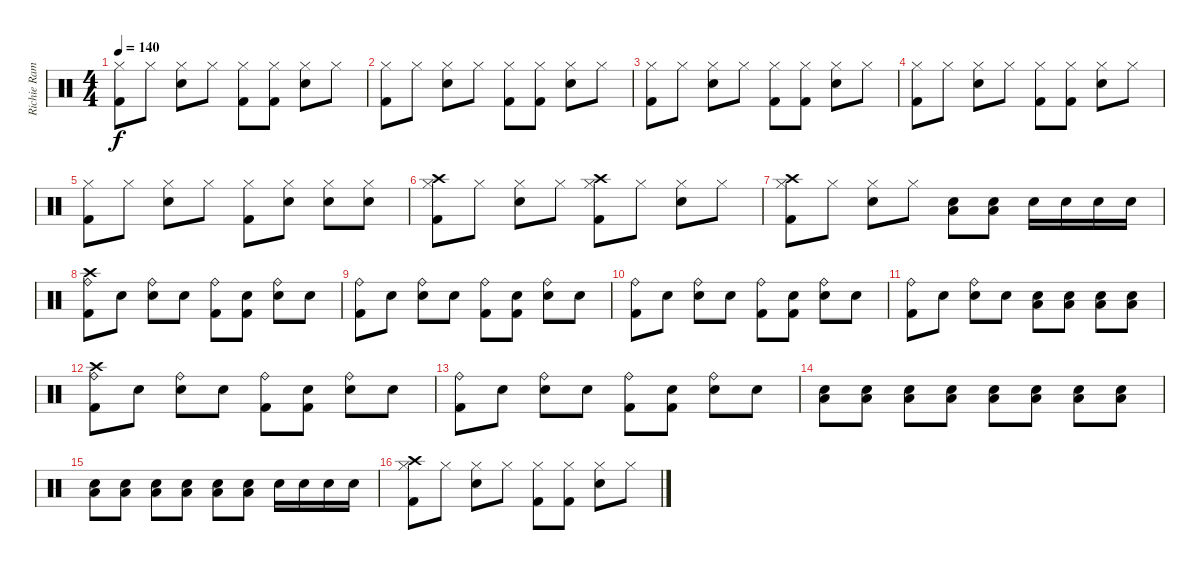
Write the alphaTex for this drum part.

\track ("Richie Ramone - Drums" "Richie Ram") {instrument percussion}
\staff {score}
\articulation defaults
\ts (4 4)
\tempo 140
\clef neutral
\ks c
("Hi-Hat (closed)" "Kick (hit) 2").8{dy f} "Hi-Hat (closed)".8 ("Hi-Hat (closed)" "Electric Snare (hit)").8 "Hi-Hat (closed)".8 ("Hi-Hat (closed)" "Kick (hit) 2").8 ("Hi-Hat (closed)" "Kick (hit) 2").8 ("Hi-Hat (closed)" "Electric Snare (hit)").8 "Hi-Hat (closed)".8 |
("Hi-Hat (closed)" "Kick (hit) 2").8 "Hi-Hat (closed)".8 ("Hi-Hat (closed)" "Electric Snare (hit)").8 "Hi-Hat (closed)".8 ("Hi-Hat (closed)" "Kick (hit) 2").8 ("Hi-Hat (closed)" "Kick (hit) 2").8 ("Hi-Hat (closed)" "Electric Snare (hit)").8 "Hi-Hat (closed)".8 |
("Hi-Hat (closed)" "Kick (hit) 2").8 "Hi-Hat (closed)".8 ("Hi-Hat (closed)" "Electric Snare (hit)").8 "Hi-Hat (closed)".8 ("Hi-Hat (closed)" "Kick (hit) 2").8 ("Hi-Hat (closed)" "Kick (hit) 2").8 ("Hi-Hat (closed)" "Electric Snare (hit)").8 "Hi-Hat (closed)".8 |
("Hi-Hat (closed)" "Kick (hit) 2").8 "Hi-Hat (closed)".8 ("Hi-Hat (closed)" "Electric Snare (hit)").8 "Hi-Hat (closed)".8 ("Hi-Hat (closed)" "Kick (hit) 2").8 ("Hi-Hat (closed)" "Kick (hit) 2").8 ("Hi-Hat (closed)" "Electric Snare (hit)").8 "Hi-Hat (closed)".8 |
("Hi-Hat (closed)" "Kick (hit) 2").8 "Hi-Hat (closed)".8 ("Hi-Hat (closed)" "Electric Snare (hit)").8 "Hi-Hat (closed)".8 ("Hi-Hat (closed)" "Kick (hit) 2").8 ("Hi-Hat (closed)" "Electric Snare (hit)").8 ("Hi-Hat (closed)" "Electric Snare (hit)").8 ("Hi-Hat (closed)" "Electric Snare (hit)").8 |
("Hi-Hat (closed)" "Crash high (hit)" "Kick (hit) 2").8 "Hi-Hat (closed)".8 ("Hi-Hat (closed)" "Electric Snare (hit)").8 "Hi-Hat (closed)".8 ("Hi-Hat (closed)" "Crash high (hit)" "Kick (hit) 2").8 "Hi-Hat (closed)".8 ("Hi-Hat (closed)" "Electric Snare (hit)").8 "Hi-Hat (closed)".8 |
("Hi-Hat (closed)" "Crash high (hit)" "Kick (hit) 2").8 "Hi-Hat (closed)".8 ("Hi-Hat (closed)" "Electric Snare (hit)").8 "Hi-Hat (closed)".8 ("Electric Snare (hit)" "Low Tom (hit)").8 ("Electric Snare (hit)" "Low Tom (hit)").8 "Electric Snare (hit)".16 "Electric Snare (hit)".16 "Electric Snare (hit)".16 "Electric Snare (hit)".16 |
("Ride (bell)" "Kick (hit) 2" "Crash high (hit)").8 "Snare (hit)"{x}.8 ("Ride (bell)" "Electric Snare (hit)").8 "Snare (hit)"{x}.8 ("Ride (bell)" "Kick (hit) 2").8 ("Snare (hit)"{x} "Kick (hit) 2").8 ("Ride (bell)" "Electric Snare (hit)").8 "Snare (hit)"{x}.8 |
("Ride (bell)" "Kick (hit) 2").8 "Snare (hit)"{x}.8 ("Ride (bell)" "Electric Snare (hit)").8 "Snare (hit)"{x}.8 ("Ride (bell)" "Kick (hit) 2").8 ("Snare (hit)"{x} "Kick (hit) 2").8 ("Ride (bell)" "Electric Snare (hit)").8 "Snare (hit)"{x}.8 |
("Ride (bell)" "Kick (hit) 2").8 "Snare (hit)"{x}.8 ("Ride (bell)" "Electric Snare (hit)").8 "Snare (hit)"{x}.8 ("Ride (bell)" "Kick (hit) 2").8 ("Snare (hit)"{x} "Kick (hit) 2").8 ("Ride (bell)" "Electric Snare (hit)").8 "Snare (hit)"{x}.8 |
("Ride (bell)" "Kick (hit) 2").8 "Snare (hit)"{x}.8 ("Ride (bell)" "Electric Snare (hit)").8 "Snare (hit)"{x}.8 ("Electric Snare (hit)" "Low Tom (hit)").8 ("Electric Snare (hit)" "Low Tom (hit)").8 ("Electric Snare (hit)" "Low Tom (hit)").8 ("Electric Snare (hit)" "Low Tom (hit)").8 |
("Ride (bell)" "Kick (hit) 2" "Crash high (hit)").8 "Snare (hit)"{x}.8 ("Ride (bell)" "Electric Snare (hit)").8 "Snare (hit)"{x}.8 ("Ride (bell)" "Kick (hit) 2").8 ("Snare (hit)"{x} "Kick (hit) 2").8 ("Ride (bell)" "Electric Snare (hit)").8 "Snare (hit)"{x}.8 |
("Ride (bell)" "Kick (hit) 2").8 "Snare (hit)"{x}.8 ("Ride (bell)" "Electric Snare (hit)").8 "Snare (hit)"{x}.8 ("Ride (bell)" "Kick (hit) 2").8 ("Snare (hit)"{x} "Kick (hit) 2").8 ("Ride (bell)" "Electric Snare (hit)").8 "Snare (hit)"{x}.8 |
("Electric Snare (hit)" "Low Tom (hit)").8 ("Electric Snare (hit)" "Low Tom (hit)").8 ("Electric Snare (hit)" "Low Tom (hit)").8 ("Electric Snare (hit)" "Low Tom (hit)").8 ("Electric Snare (hit)" "Low Tom (hit)").8 ("Electric Snare (hit)" "Low Tom (hit)").8 ("Electric Snare (hit)" "Low Tom (hit)").8 ("Electric Snare (hit)" "Low Tom (hit)").8 |
("Electric Snare (hit)" "Low Tom (hit)").8 ("Electric Snare (hit)" "Low Tom (hit)").8 ("Electric Snare (hit)" "Low Tom (hit)").8 ("Electric Snare (hit)" "Low Tom (hit)").8 ("Electric Snare (hit)" "Low Tom (hit)").8 ("Electric Snare (hit)" "Low Tom (hit)").8 "Electric Snare (hit)".16 "Electric Snare (hit)".16 "Electric Snare (hit)".16 "Electric Snare (hit)".16 |
("Hi-Hat (closed)" "Kick (hit) 2" "Crash high (hit)").8 "Hi-Hat (closed)".8 ("Hi-Hat (closed)" "Electric Snare (hit)").8 "Hi-Hat (closed)".8 ("Hi-Hat (closed)" "Kick (hit) 2").8 ("Hi-Hat (closed)" "Kick (hit) 2").8 ("Hi-Hat (closed)" "Electric Snare (hit)").8 "Hi-Hat (closed)".8
